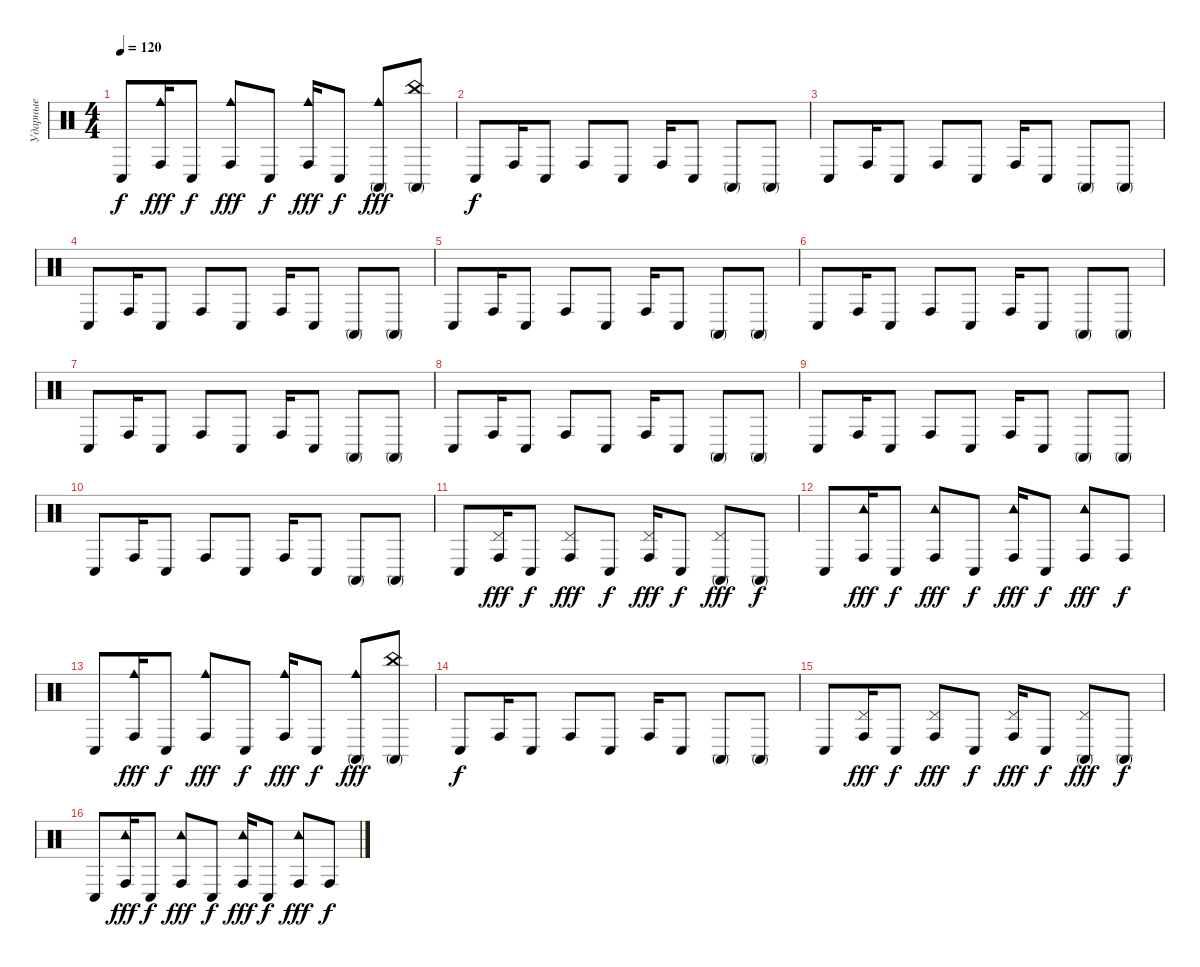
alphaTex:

\track ("Ударные" "Ударные") {instrument percussion}
\staff {score}
\articulation defaults
\ts (4 4)
\tempo 120
\clef neutral
\ks c "Conga low (hit)".8{dy f}
("Conga high (hit)" "Cowbell medium (hit)").16{dy fff} "Conga low (hit)".8{dy f} ("Conga high (hit)" "Cowbell medium (hit)").8{dy fff} "Conga low (hit)".8{dy f} ("Conga high (hit)" "Cowbell medium (hit)").16{dy fff} "Conga low (hit)".8{dy f} ("Conga high (mute)" "Cowbell medium (hit)").8{dy fff} ("Conga high (mute)" "China (hit)").8 |
"Conga low (hit)".8{dy f} "Conga high (hit)".16 "Conga low (hit)".8 "Conga high (hit)".8 "Conga low (hit)".8 "Conga high (hit)".16 "Conga low (hit)".8 "Conga high (mute)".8 "Conga high (mute)".8 |
"Conga low (hit)".8 "Conga high (hit)".16 "Conga low (hit)".8 "Conga high (hit)".8 "Conga low (hit)".8 "Conga high (hit)".16 "Conga low (hit)".8 "Conga high (mute)".8 "Conga high (mute)".8 |
"Conga low (hit)".8 "Conga high (hit)".16 "Conga low (hit)".8 "Conga high (hit)".8 "Conga low (hit)".8 "Conga high (hit)".16 "Conga low (hit)".8 "Conga high (mute)".8 "Conga high (mute)".8 |
"Conga low (hit)".8 "Conga high (hit)".16 "Conga low (hit)".8 "Conga high (hit)".8 "Conga low (hit)".8 "Conga high (hit)".16 "Conga low (hit)".8 "Conga high (mute)".8 "Conga high (mute)".8 |
"Conga low (hit)".8 "Conga high (hit)".16 "Conga low (hit)".8 "Conga high (hit)".8 "Conga low (hit)".8 "Conga high (hit)".16 "Conga low (hit)".8 "Conga high (mute)".8 "Conga high (mute)".8 |
"Conga low (hit)".8 "Conga high (hit)".16 "Conga low (hit)".8 "Conga high (hit)".8 "Conga low (hit)".8 "Conga high (hit)".16 "Conga low (hit)".8 "Conga high (mute)".8 "Conga high (mute)".8 |
"Conga low (hit)".8 "Conga high (hit)".16 "Conga low (hit)".8 "Conga high (hit)".8 "Conga low (hit)".8 "Conga high (hit)".16 "Conga low (hit)".8 "Conga high (mute)".8 "Conga high (mute)".8 |
"Conga low (hit)".8 "Conga high (hit)".16 "Conga low (hit)".8 "Conga high (hit)".8 "Conga low (hit)".8 "Conga high (hit)".16 "Conga low (hit)".8 "Conga high (mute)".8 "Conga high (mute)".8 |
"Conga low (hit)".8 "Conga high (hit)".16 "Conga low (hit)".8 "Conga high (hit)".8 "Conga low (hit)".8 "Conga high (hit)".16 "Conga low (hit)".8 "Conga high (mute)".8 "Conga high (mute)".8 |
"Conga low (hit)".8 ("Conga high (hit)" "Pedal Hi-Hat (hit)").16{dy fff} "Conga low (hit)".8{dy f} ("Conga high (hit)" "Pedal Hi-Hat (hit)").8{dy fff} "Conga low (hit)".8{dy f} ("Conga high (hit)" "Pedal Hi-Hat (hit)").16{dy fff} "Conga low (hit)".8{dy f} ("Conga high (mute)" "Pedal Hi-Hat (hit)").8{dy fff} "Conga high (mute)".8{dy f} |
"Conga low (hit)".8 ("Conga high (hit)" "Tambourine (hit)").16{dy fff} "Conga low (hit)".8{dy f} ("Conga high (hit)" "Tambourine (hit)").8{dy fff} "Conga low (hit)".8{dy f} ("Conga high (hit)" "Tambourine (hit)").16{dy fff} "Conga low (hit)".8{dy f} ("Conga high (hit)" "Tambourine (hit)").8{dy fff} "Conga high (hit)".8{dy f} |
"Conga low (hit)".8 ("Conga high (hit)" "Cowbell medium (hit)").16{dy fff} "Conga low (hit)".8{dy f} ("Conga high (hit)" "Cowbell medium (hit)").8{dy fff} "Conga low (hit)".8{dy f} ("Conga high (hit)" "Cowbell medium (hit)").16{dy fff} "Conga low (hit)".8{dy f} ("Conga high (mute)" "Cowbell medium (hit)").8{dy fff} ("Conga high (mute)" "China (hit)").8 |
"Conga low (hit)".8{dy f} "Conga high (hit)".16 "Conga low (hit)".8 "Conga high (hit)".8 "Conga low (hit)".8 "Conga high (hit)".16 "Conga low (hit)".8 "Conga high (mute)".8 "Conga high (mute)".8 |
"Conga low (hit)".8 ("Conga high (hit)" "Pedal Hi-Hat (hit)").16{dy fff} "Conga low (hit)".8{dy f} ("Conga high (hit)" "Pedal Hi-Hat (hit)").8{dy fff} "Conga low (hit)".8{dy f} ("Conga high (hit)" "Pedal Hi-Hat (hit)").16{dy fff} "Conga low (hit)".8{dy f} ("Conga high (mute)" "Pedal Hi-Hat (hit)").8{dy fff} "Conga high (mute)".8{dy f} |
"Conga low (hit)".8 ("Conga high (hit)" "Tambourine (hit)").16{dy fff} "Conga low (hit)".8{dy f} ("Conga high (hit)" "Tambourine (hit)").8{dy fff} "Conga low (hit)".8{dy f} ("Conga high (hit)" "Tambourine (hit)").16{dy fff} "Conga low (hit)".8{dy f} ("Conga high (hit)" "Tambourine (hit)").8{dy fff} "Conga high (hit)".8{dy f}
